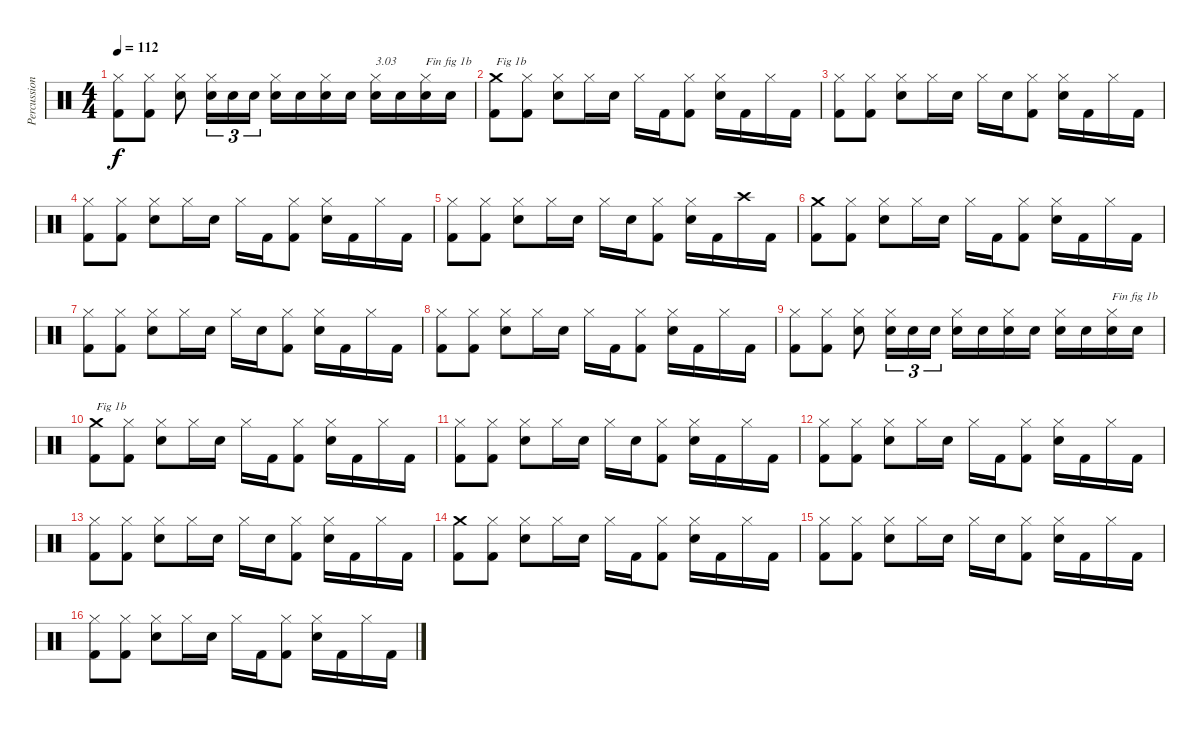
\track ("Percussions" "Percussion") {instrument percussion}
\staff {score}
\articulation defaults
\ts (4 4)
\tempo 112
\clef neutral
\ks c
("Kick (hit) 2" "Hi-Hat (closed)").8{dy f} ("Kick (hit) 2" "Hi-Hat (closed)").8 ("Snare (hit) 2" "Hi-Hat (closed)").8 ("Snare (hit) 2" "Hi-Hat (closed)").16{tu (3 2)} "Snare (hit) 2".16{tu (3 2)} "Snare (hit) 2".16{tu (3 2)} ("Snare (hit) 2" "Hi-Hat (closed)").16 "Snare (hit) 2".16 ("Snare (hit) 2" "Hi-Hat (closed)").16 "Snare (hit) 2".16 ("Snare (hit) 2" "Hi-Hat (closed)").16{txt "3.03"} "Snare (hit) 2".16 ("Snare (hit) 2" "Hi-Hat (closed)").16{txt "Fin fig 1b"} "Snare (hit) 2".16 |
("Kick (hit) 2" "Crash medium (hit)").8{txt "Fig 1b"} ("Kick (hit) 2" "Hi-Hat (closed)").8 ("Snare (hit) 2" "Hi-Hat (closed)").8 "Hi-Hat (closed)".16 "Snare (hit) 2".16 "Hi-Hat (closed)".16 "Kick (hit) 2".16 ("Kick (hit) 2" "Hi-Hat (closed)").8 ("Snare (hit) 2" "Hi-Hat (closed)").16 "Kick (hit) 2".16 "Hi-Hat (closed)".16 "Kick (hit) 2".16 |
("Kick (hit) 2" "Hi-Hat (closed)").8 ("Kick (hit) 2" "Hi-Hat (closed)").8 ("Snare (hit) 2" "Hi-Hat (closed)").8 "Hi-Hat (closed)".16 "Snare (hit) 2".16 "Hi-Hat (closed)".16 "Snare (hit) 2".16 ("Kick (hit) 2" "Hi-Hat (closed)").8 ("Snare (hit) 2" "Hi-Hat (closed)").16 "Kick (hit) 2".16 "Hi-Hat (closed)".16 "Kick (hit) 2".16 |
("Kick (hit) 2" "Hi-Hat (closed)").8 ("Kick (hit) 2" "Hi-Hat (closed)").8 ("Snare (hit) 2" "Hi-Hat (closed)").8 "Hi-Hat (closed)".16 "Snare (hit) 2".16 "Hi-Hat (closed)".16 "Kick (hit) 2".16 ("Kick (hit) 2" "Hi-Hat (closed)").8 ("Snare (hit) 2" "Hi-Hat (closed)").16 "Kick (hit) 2".16 "Hi-Hat (closed)".16 "Kick (hit) 2".16 |
("Kick (hit) 2" "Hi-Hat (closed)").8 ("Kick (hit) 2" "Hi-Hat (closed)").8 ("Snare (hit) 2" "Hi-Hat (closed)").8 "Hi-Hat (closed)".16 "Snare (hit) 2".16 "Hi-Hat (closed)".16 "Snare (hit) 2".16 ("Kick (hit) 2" "Hi-Hat (closed)").8 ("Snare (hit) 2" "Hi-Hat (closed)").16 "Kick (hit) 2".16 "Crash high (hit)".16 "Kick (hit) 2".16 |
("Kick (hit) 2" "Crash medium (hit)").8 ("Kick (hit) 2" "Hi-Hat (closed)").8 ("Snare (hit) 2" "Hi-Hat (closed)").8 "Hi-Hat (closed)".16 "Snare (hit) 2".16 "Hi-Hat (closed)".16 "Kick (hit) 2".16 ("Kick (hit) 2" "Hi-Hat (closed)").8 ("Snare (hit) 2" "Hi-Hat (closed)").16 "Kick (hit) 2".16 "Hi-Hat (closed)".16 "Kick (hit) 2".16 |
("Kick (hit) 2" "Hi-Hat (closed)").8 ("Kick (hit) 2" "Hi-Hat (closed)").8 ("Snare (hit) 2" "Hi-Hat (closed)").8 "Hi-Hat (closed)".16 "Snare (hit) 2".16 "Hi-Hat (closed)".16 "Snare (hit) 2".16 ("Kick (hit) 2" "Hi-Hat (closed)").8 ("Snare (hit) 2" "Hi-Hat (closed)").16 "Kick (hit) 2".16 "Hi-Hat (closed)".16 "Kick (hit) 2".16 |
("Kick (hit) 2" "Hi-Hat (closed)").8 ("Kick (hit) 2" "Hi-Hat (closed)").8 ("Snare (hit) 2" "Hi-Hat (closed)").8 "Hi-Hat (closed)".16 "Snare (hit) 2".16 "Hi-Hat (closed)".16 "Kick (hit) 2".16 ("Kick (hit) 2" "Hi-Hat (closed)").8 ("Snare (hit) 2" "Hi-Hat (closed)").16 "Kick (hit) 2".16 "Hi-Hat (closed)".16 "Kick (hit) 2".16 |
("Kick (hit) 2" "Hi-Hat (closed)").8 ("Kick (hit) 2" "Hi-Hat (closed)").8 ("Snare (hit) 2" "Hi-Hat (closed)").8 ("Snare (hit) 2" "Hi-Hat (closed)").16{tu (3 2)} "Snare (hit) 2".16{tu (3 2)} "Snare (hit) 2".16{tu (3 2)} ("Snare (hit) 2" "Hi-Hat (closed)").16 "Snare (hit) 2".16 ("Snare (hit) 2" "Hi-Hat (closed)").16 "Snare (hit) 2".16 ("Snare (hit) 2" "Hi-Hat (closed)").16 "Snare (hit) 2".16 ("Snare (hit) 2" "Hi-Hat (closed)").16{txt "Fin fig 1b"} "Snare (hit) 2".16 |
("Kick (hit) 2" "Crash medium (hit)").8{txt "Fig 1b"} ("Kick (hit) 2" "Hi-Hat (closed)").8 ("Snare (hit) 2" "Hi-Hat (closed)").8 "Hi-Hat (closed)".16 "Snare (hit) 2".16 "Hi-Hat (closed)".16 "Kick (hit) 2".16 ("Kick (hit) 2" "Hi-Hat (closed)").8 ("Snare (hit) 2" "Hi-Hat (closed)").16 "Kick (hit) 2".16 "Hi-Hat (closed)".16 "Kick (hit) 2".16 |
("Kick (hit) 2" "Hi-Hat (closed)").8 ("Kick (hit) 2" "Hi-Hat (closed)").8 ("Snare (hit) 2" "Hi-Hat (closed)").8 "Hi-Hat (closed)".16 "Snare (hit) 2".16 "Hi-Hat (closed)".16 "Snare (hit) 2".16 ("Kick (hit) 2" "Hi-Hat (closed)").8 ("Snare (hit) 2" "Hi-Hat (closed)").16 "Kick (hit) 2".16 "Hi-Hat (closed)".16 "Kick (hit) 2".16 |
("Kick (hit) 2" "Hi-Hat (closed)").8 ("Kick (hit) 2" "Hi-Hat (closed)").8 ("Snare (hit) 2" "Hi-Hat (closed)").8 "Hi-Hat (closed)".16 "Snare (hit) 2".16 "Hi-Hat (closed)".16 "Kick (hit) 2".16 ("Kick (hit) 2" "Hi-Hat (closed)").8 ("Snare (hit) 2" "Hi-Hat (closed)").16 "Kick (hit) 2".16 "Hi-Hat (closed)".16 "Kick (hit) 2".16 |
("Kick (hit) 2" "Hi-Hat (closed)").8 ("Kick (hit) 2" "Hi-Hat (closed)").8 ("Snare (hit) 2" "Hi-Hat (closed)").8 "Hi-Hat (closed)".16 "Snare (hit) 2".16 "Hi-Hat (closed)".16 "Snare (hit) 2".16 ("Kick (hit) 2" "Hi-Hat (closed)").8 ("Snare (hit) 2" "Hi-Hat (closed)").16 "Kick (hit) 2".16 "Hi-Hat (closed)".16 "Kick (hit) 2".16 |
("Kick (hit) 2" "Crash medium (hit)").8 ("Kick (hit) 2" "Hi-Hat (closed)").8 ("Snare (hit) 2" "Hi-Hat (closed)").8 "Hi-Hat (closed)".16 "Snare (hit) 2".16 "Hi-Hat (closed)".16 "Kick (hit) 2".16 ("Kick (hit) 2" "Hi-Hat (closed)").8 ("Snare (hit) 2" "Hi-Hat (closed)").16 "Kick (hit) 2".16 "Hi-Hat (closed)".16 "Kick (hit) 2".16 |
("Kick (hit) 2" "Hi-Hat (closed)").8 ("Kick (hit) 2" "Hi-Hat (closed)").8 ("Snare (hit) 2" "Hi-Hat (closed)").8 "Hi-Hat (closed)".16 "Snare (hit) 2".16 "Hi-Hat (closed)".16 "Snare (hit) 2".16 ("Kick (hit) 2" "Hi-Hat (closed)").8 ("Snare (hit) 2" "Hi-Hat (closed)").16 "Kick (hit) 2".16 "Hi-Hat (closed)".16 "Kick (hit) 2".16 |
("Kick (hit) 2" "Hi-Hat (closed)").8 ("Kick (hit) 2" "Hi-Hat (closed)").8 ("Snare (hit) 2" "Hi-Hat (closed)").8 "Hi-Hat (closed)".16 "Snare (hit) 2".16 "Hi-Hat (closed)".16 "Kick (hit) 2".16 ("Kick (hit) 2" "Hi-Hat (closed)").8 ("Snare (hit) 2" "Hi-Hat (closed)").16 "Kick (hit) 2".16 "Hi-Hat (closed)".16 "Kick (hit) 2".16
